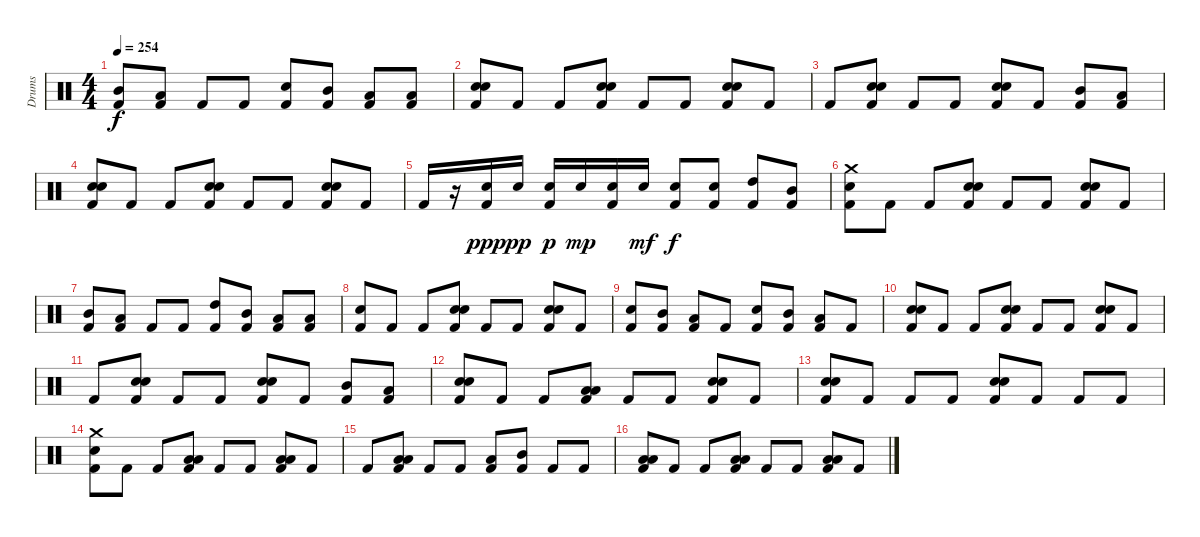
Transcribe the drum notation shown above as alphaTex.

\track ("Drums" "Drums") {instrument percussion}
\staff {score}
\articulation defaults
\ts (4 4)
\tempo 254
\clef neutral
\ks c
("Mid Tom (hit)" "Kick (hit) 2").8{dy f} ("Low Tom (hit)" "Kick (hit) 2").8 "Kick (hit) 2".8 "Kick (hit) 2".8 ("Electric Snare (hit)" "Kick (hit) 2").8 ("Mid Tom (hit)" "Kick (hit) 2").8 ("Low Tom (hit)" "Kick (hit) 2").8 ("Low Tom (hit)" "Kick (hit) 2").8 |
("Electric Snare (hit)" "Electric Snare (hit)" "Kick (hit) 2").8{bu 60} "Kick (hit) 2".8 "Kick (hit) 2".8 ("Electric Snare (hit)" "Electric Snare (hit)" "Kick (hit) 2").8{bu 60} "Kick (hit) 2".8 "Kick (hit) 2".8 ("Electric Snare (hit)" "Electric Snare (hit)" "Kick (hit) 2").8{bu 60} "Kick (hit) 2".8 |
"Kick (hit) 2".8 ("Electric Snare (hit)" "Electric Snare (hit)" "Kick (hit) 2").8{bu 60} "Kick (hit) 2".8 "Kick (hit) 2".8 ("Electric Snare (hit)" "Electric Snare (hit)" "Kick (hit) 2").8{bu 60} "Kick (hit) 2".8 ("Mid Tom (hit)" "Kick (hit) 2").8 ("Low Tom (hit)" "Kick (hit) 2").8 |
("Electric Snare (hit)" "Electric Snare (hit)" "Kick (hit) 2").8{bu 60} "Kick (hit) 2".8 "Kick (hit) 2".8 ("Electric Snare (hit)" "Electric Snare (hit)" "Kick (hit) 2").8{bu 60} "Kick (hit) 2".8 "Kick (hit) 2".8 ("Electric Snare (hit)" "Electric Snare (hit)" "Kick (hit) 2").8{bu 60} "Kick (hit) 2".8 |
"Kick (hit) 2".16 r.16 ("Electric Snare (hit)" "Kick (hit) 2").16{dy ppp} "Electric Snare (hit)".16{dy pp} ("Electric Snare (hit)" "Kick (hit) 2").16{dy p} "Electric Snare (hit)".16{dy mp} ("Electric Snare (hit)" "Kick (hit) 2").16 "Electric Snare (hit)".16{dy mf} ("Electric Snare (hit)" "Kick (hit) 2").8{dy f} ("Electric Snare (hit)" "Kick (hit) 2").8 ("High Tom (hit)" "Kick (hit) 2").8 ("Mid Tom (hit)" "Kick (hit) 2").8 |
("Crash medium (hit)" "Electric Snare (hit)" "Kick (hit) 2").8 "Kick (hit) 2".8 "Kick (hit) 2".8 ("Electric Snare (hit)" "Electric Snare (hit)" "Kick (hit) 2").8{bu 60} "Kick (hit) 2".8 "Kick (hit) 2".8 ("Electric Snare (hit)" "Electric Snare (hit)" "Kick (hit) 2").8{bu 60} "Kick (hit) 2".8 |
("Mid Tom (hit)" "Kick (hit) 2").8 ("Low Tom (hit)" "Kick (hit) 2").8 "Kick (hit) 2".8 "Kick (hit) 2".8 ("High Tom (hit)" "Kick (hit) 2").8 ("Mid Tom (hit)" "Kick (hit) 2").8 ("Low Tom (hit)" "Kick (hit) 2").8 ("Low Tom (hit)" "Kick (hit) 2").8 |
("Electric Snare (hit)" "Kick (hit) 2").8 "Kick (hit) 2".8 "Kick (hit) 2".8 ("Electric Snare (hit)" "Electric Snare (hit)" "Kick (hit) 2").8{bu 60} "Kick (hit) 2".8 "Kick (hit) 2".8 ("Electric Snare (hit)" "Electric Snare (hit)" "Kick (hit) 2").8{bu 60} "Kick (hit) 2".8 |
("Electric Snare (hit)" "Kick (hit) 2").8 ("Mid Tom (hit)" "Kick (hit) 2").8 ("Low Tom (hit)" "Kick (hit) 2").8 "Kick (hit) 2".8 ("Electric Snare (hit)" "Kick (hit) 2").8 ("Mid Tom (hit)" "Kick (hit) 2").8 ("Low Tom (hit)" "Kick (hit) 2").8 "Kick (hit) 2".8 |
("Electric Snare (hit)" "Electric Snare (hit)" "Kick (hit) 2").8{bu 60} "Kick (hit) 2".8 "Kick (hit) 2".8 ("Electric Snare (hit)" "Electric Snare (hit)" "Kick (hit) 2").8{bu 60} "Kick (hit) 2".8 "Kick (hit) 2".8 ("Electric Snare (hit)" "Electric Snare (hit)" "Kick (hit) 2").8{bu 60} "Kick (hit) 2".8 |
"Kick (hit) 2".8 ("Electric Snare (hit)" "Electric Snare (hit)" "Kick (hit) 2").8{bu 60} "Kick (hit) 2".8 "Kick (hit) 2".8 ("Electric Snare (hit)" "Electric Snare (hit)" "Kick (hit) 2").8{bu 60} "Kick (hit) 2".8 ("Mid Tom (hit)" "Kick (hit) 2").8 ("Low Tom (hit)" "Kick (hit) 2").8 |
("Electric Snare (hit)" "Electric Snare (hit)" "Kick (hit) 2").8{bu 60} "Kick (hit) 2".8 "Kick (hit) 2".8 ("Low Tom (hit)" "Low Tom (hit)" "Kick (hit) 2").8{bu 60} "Kick (hit) 2".8 "Kick (hit) 2".8 ("Electric Snare (hit)" "Electric Snare (hit)" "Kick (hit) 2").8{bu 60} "Kick (hit) 2".8 |
("Electric Snare (hit)" "Electric Snare (hit)" "Kick (hit) 2").8{bu 60} "Kick (hit) 2".8 "Kick (hit) 2".8 "Kick (hit) 2".8 ("Electric Snare (hit)" "Electric Snare (hit)" "Kick (hit) 2").8{bu 60} "Kick (hit) 2".8 "Kick (hit) 2".8 "Kick (hit) 2".8 |
("Crash medium (hit)" "Electric Snare (hit)" "Kick (hit) 2").8 "Kick (hit) 2".8 "Kick (hit) 2".8 ("Low Tom (hit)" "Low Tom (hit)" "Kick (hit) 2").8{bu 60} "Kick (hit) 2".8 "Kick (hit) 2".8 ("Low Tom (hit)" "Low Tom (hit)" "Kick (hit) 2").8{bu 60} "Kick (hit) 2".8 |
"Kick (hit) 2".8 ("Low Tom (hit)" "Low Tom (hit)" "Kick (hit) 2").8{bu 60} "Kick (hit) 2".8 "Kick (hit) 2".8 ("Low Tom (hit)" "Kick (hit) 2").8 ("Mid Tom (hit)" "Kick (hit) 2").8 "Kick (hit) 2".8 "Kick (hit) 2".8 |
("Low Tom (hit)" "Low Tom (hit)" "Kick (hit) 2").8{bu 60} "Kick (hit) 2".8 "Kick (hit) 2".8 ("Low Tom (hit)" "Low Tom (hit)" "Kick (hit) 2").8{bu 60} "Kick (hit) 2".8 "Kick (hit) 2".8 ("Low Tom (hit)" "Low Tom (hit)" "Kick (hit) 2").8{bu 60} "Kick (hit) 2".8
